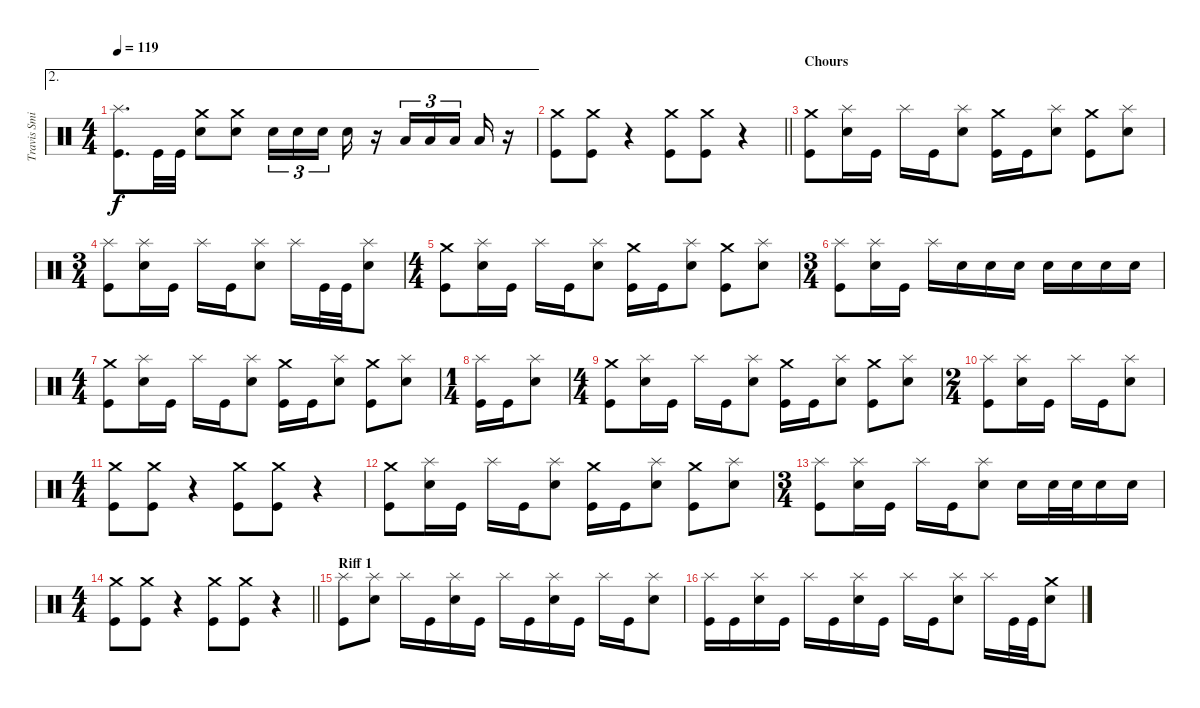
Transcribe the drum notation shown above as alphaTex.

\track ("Travis Smith (Drums)" "Travis Smi") {instrument percussion}
\staff {score}
\articulation defaults
\ae 2
\ts (4 4)
\tempo 119
\clef neutral
\ks c
("Splash (hit)" "Kick (hit)").8{d dy f} "Kick (hit)".32 "Kick (hit)".32 ("Crash medium (hit)" "Electric Snare (hit)").8 ("Crash medium (hit)" "Electric Snare (hit)").8 "Electric Snare (hit)".16{tu (3 2)} "Electric Snare (hit)".16{tu (3 2)} "Electric Snare (hit)".16{tu (3 2) beam splitsecondary} "Electric Snare (hit)".16 r.16 "Low Tom (hit)".16{tu (3 2)} "Low Tom (hit)".16{tu (3 2)} "Low Tom (hit)".16{tu (3 2) beam splitsecondary} "Low Tom (hit)".16 r.16 |
\barLineRight lightlight
("Crash medium (hit)" "Kick (hit)").8 ("Crash medium (hit)" "Kick (hit)").8 r.4 ("Crash medium (hit)" "Kick (hit)").8 ("Crash medium (hit)" "Kick (hit)").8 r.4 |
\section ("" "Chours")
("Crash medium (hit)" "Kick (hit)").8 ("Splash (hit)" "Electric Snare (hit)").16 "Kick (hit)".16 "Splash (hit)".16 "Kick (hit)".16 ("Splash (hit)" "Electric Snare (hit)").8 ("Crash medium (hit)" "Kick (hit)").16 "Kick (hit)".16 ("Splash (hit)" "Electric Snare (hit)").8 ("Crash medium (hit)" "Kick (hit)").8 ("Splash (hit)" "Electric Snare (hit)").8 |
\ts (3 4)
("Splash (hit)" "Kick (hit)").8 ("Splash (hit)" "Electric Snare (hit)").16 "Kick (hit)".16 "Splash (hit)".16 "Kick (hit)".16 ("Splash (hit)" "Electric Snare (hit)").8 "Splash (hit)".16 "Kick (hit)".32 "Kick (hit)".32 ("Splash (hit)" "Electric Snare (hit)").8 |
\ts (4 4)
("Crash medium (hit)" "Kick (hit)").8 ("Splash (hit)" "Electric Snare (hit)").16 "Kick (hit)".16 "Splash (hit)".16 "Kick (hit)".16 ("Splash (hit)" "Electric Snare (hit)").8 ("Crash medium (hit)" "Kick (hit)").16 "Kick (hit)".16 ("Splash (hit)" "Electric Snare (hit)").8 ("Crash medium (hit)" "Kick (hit)").8 ("Splash (hit)" "Electric Snare (hit)").8 |
\ts (3 4)
("Splash (hit)" "Kick (hit)").8 ("Splash (hit)" "Electric Snare (hit)").16 "Kick (hit)".16 "Splash (hit)".16 "Electric Snare (hit)".16 "Electric Snare (hit)".16 "Electric Snare (hit)".16 "Electric Snare (hit)".16 "Electric Snare (hit)".16 "Electric Snare (hit)".16 "Electric Snare (hit)".16 |
\ts (4 4)
("Crash medium (hit)" "Kick (hit)").8 ("Splash (hit)" "Electric Snare (hit)").16 "Kick (hit)".16 "Splash (hit)".16 "Kick (hit)".16 ("Splash (hit)" "Electric Snare (hit)").8 ("Crash medium (hit)" "Kick (hit)").16 "Kick (hit)".16 ("Splash (hit)" "Electric Snare (hit)").8 ("Crash medium (hit)" "Kick (hit)").8 ("Splash (hit)" "Electric Snare (hit)").8 |
\ts (1 4)
("Splash (hit)" "Kick (hit)").16 "Kick (hit)".16 ("Splash (hit)" "Electric Snare (hit)").8 |
\ts (4 4)
("Crash medium (hit)" "Kick (hit)").8 ("Splash (hit)" "Electric Snare (hit)").16 "Kick (hit)".16 "Splash (hit)".16 "Kick (hit)".16 ("Splash (hit)" "Electric Snare (hit)").8 ("Crash medium (hit)" "Kick (hit)").16 "Kick (hit)".16 ("Splash (hit)" "Electric Snare (hit)").8 ("Crash medium (hit)" "Kick (hit)").8 ("Splash (hit)" "Electric Snare (hit)").8 |
\ts (2 4)
("Splash (hit)" "Kick (hit)").8 ("Splash (hit)" "Electric Snare (hit)").16 "Kick (hit)".16 "Splash (hit)".16 "Kick (hit)".16 ("Splash (hit)" "Electric Snare (hit)").8 |
\ts (4 4)
("Crash medium (hit)" "Kick (hit)").8 ("Crash medium (hit)" "Kick (hit)").8 r.4 ("Crash medium (hit)" "Kick (hit)").8 ("Crash medium (hit)" "Kick (hit)").8 r.4 |
("Crash medium (hit)" "Kick (hit)").8 ("Splash (hit)" "Electric Snare (hit)").16 "Kick (hit)".16 "Splash (hit)".16 "Kick (hit)".16 ("Splash (hit)" "Electric Snare (hit)").8 ("Crash medium (hit)" "Kick (hit)").16 "Kick (hit)".16 ("Splash (hit)" "Electric Snare (hit)").8 ("Crash medium (hit)" "Kick (hit)").8 ("Splash (hit)" "Electric Snare (hit)").8 |
\ts (3 4)
("Splash (hit)" "Kick (hit)").8 ("Splash (hit)" "Electric Snare (hit)").16 "Kick (hit)".16 "Splash (hit)".16 "Kick (hit)".16 ("Splash (hit)" "Electric Snare (hit)").8 "Electric Snare (hit)".16 "Electric Snare (hit)".32 "Electric Snare (hit)".32 "Electric Snare (hit)".16 "Electric Snare (hit)".16 |
\ts (4 4)
\barLineRight lightlight
("Crash medium (hit)" "Kick (hit)").8 ("Crash medium (hit)" "Kick (hit)").8 r.4 ("Crash medium (hit)" "Kick (hit)").8 ("Crash medium (hit)" "Kick (hit)").8 r.4 |
\section ("" "Riff 1")
("Splash (hit)" "Kick (hit)").8 ("Splash (hit)" "Electric Snare (hit)").8 "Splash (hit)".16 "Kick (hit)".16 ("Splash (hit)" "Electric Snare (hit)").16 "Kick (hit)".16 "Splash (hit)".16 "Kick (hit)".16 ("Splash (hit)" "Electric Snare (hit)").16 "Kick (hit)".16 "Splash (hit)".16 "Kick (hit)".16 ("Splash (hit)" "Electric Snare (hit)").8 |
("Splash (hit)" "Kick (hit)").16 "Kick (hit)".16 ("Splash (hit)" "Electric Snare (hit)").16 "Kick (hit)".16 "Splash (hit)".16 "Kick (hit)".16 ("Splash (hit)" "Electric Snare (hit)").16 "Kick (hit)".16 "Splash (hit)".16 "Kick (hit)".16 ("Splash (hit)" "Electric Snare (hit)").8 "Splash (hit)".16 "Kick (hit)".32 "Kick (hit)".32 ("Crash medium (hit)" "Electric Snare (hit)").8
